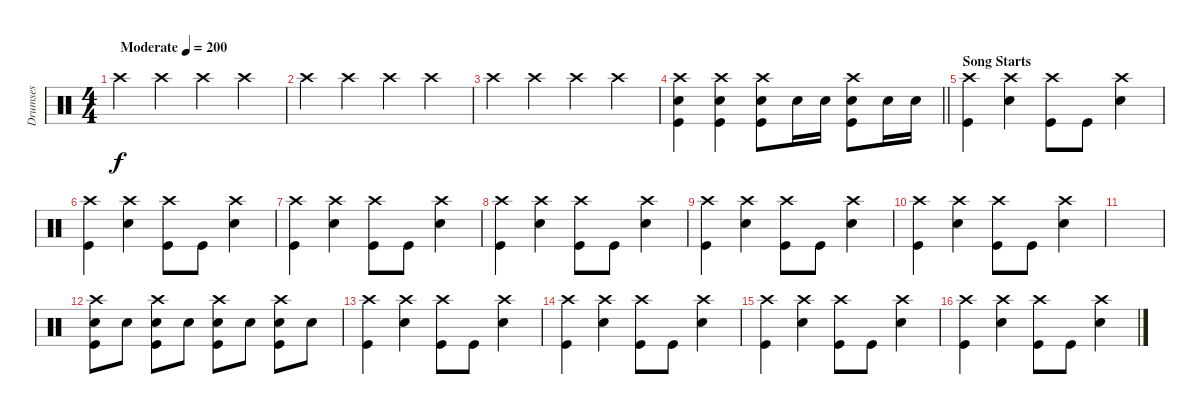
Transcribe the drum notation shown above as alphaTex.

\track ("Drumses" "Drumses") {instrument percussion}
\staff {score}
\articulation defaults
\ts (4 4)
\tempo (200 "Moderate")
\clef neutral
\ks c "Crash high (hit)".4{dy f} "Crash high (hit)".4 "Crash high (hit)".4 "Crash high (hit)".4
|
"Crash high (hit)".4 "Crash high (hit)".4 "Crash high (hit)".4 "Crash high (hit)".4 |
"Crash high (hit)".4 "Crash high (hit)".4 "Crash high (hit)".4 "Crash high (hit)".4 |
\barLineRight lightlight
("Crash high (hit)" "Snare (hit) 2" "Kick (hit)").4 ("Crash high (hit)" "Snare (hit) 2" "Kick (hit)").4 ("Crash high (hit)" "Snare (hit) 2" "Kick (hit)").8 "Snare (hit) 2".16 "Snare (hit) 2".16 ("Crash high (hit)" "Snare (hit) 2" "Kick (hit)").8 "Snare (hit) 2".16 "Snare (hit) 2".16 |
\section ("" "Song Starts")
("Crash high (hit)" "Kick (hit)").4 ("Crash high (hit)" "Snare (hit) 2").4 ("Crash high (hit)" "Kick (hit)").8 "Kick (hit)".8 ("Crash high (hit)" "Snare (hit) 2").4 |
("Crash high (hit)" "Kick (hit)").4 ("Crash high (hit)" "Snare (hit) 2").4 ("Crash high (hit)" "Kick (hit)").8 "Kick (hit)".8 ("Crash high (hit)" "Snare (hit) 2").4 |
("Crash high (hit)" "Kick (hit)").4 ("Crash high (hit)" "Snare (hit) 2").4 ("Crash high (hit)" "Kick (hit)").8 "Kick (hit)".8 ("Crash high (hit)" "Snare (hit) 2").4 |
("Crash high (hit)" "Kick (hit)").4 ("Crash high (hit)" "Snare (hit) 2").4 ("Crash high (hit)" "Kick (hit)").8 "Kick (hit)".8 ("Crash high (hit)" "Snare (hit) 2").4 |
("Crash high (hit)" "Kick (hit)").4 ("Crash high (hit)" "Snare (hit) 2").4 ("Crash high (hit)" "Kick (hit)").8 "Kick (hit)".8 ("Crash high (hit)" "Snare (hit) 2").4 |
("Crash high (hit)" "Kick (hit)").4 ("Crash high (hit)" "Snare (hit) 2").4 ("Crash high (hit)" "Kick (hit)").8 "Kick (hit)".8 ("Crash high (hit)" "Snare (hit) 2").4 |
|
("Crash high (hit)" "Snare (hit) 2" "Kick (hit)").8 "Snare (hit) 2".8 ("Crash high (hit)" "Snare (hit) 2" "Kick (hit)").8 "Snare (hit) 2".8 ("Crash high (hit)" "Snare (hit) 2" "Kick (hit)").8 "Snare (hit) 2".8 ("Crash high (hit)" "Snare (hit) 2" "Kick (hit)").8 "Snare (hit) 2".8 |
("Crash high (hit)" "Kick (hit)").4 ("Crash high (hit)" "Snare (hit) 2").4 ("Crash high (hit)" "Kick (hit)").8 "Kick (hit)".8 ("Crash high (hit)" "Snare (hit) 2").4 |
("Crash high (hit)" "Kick (hit)").4 ("Crash high (hit)" "Snare (hit) 2").4 ("Crash high (hit)" "Kick (hit)").8 "Kick (hit)".8 ("Crash high (hit)" "Snare (hit) 2").4 |
("Crash high (hit)" "Kick (hit)").4 ("Crash high (hit)" "Snare (hit) 2").4 ("Crash high (hit)" "Kick (hit)").8 "Kick (hit)".8 ("Crash high (hit)" "Snare (hit) 2").4 |
("Crash high (hit)" "Kick (hit)").4 ("Crash high (hit)" "Snare (hit) 2").4 ("Crash high (hit)" "Kick (hit)").8 "Kick (hit)".8 ("Crash high (hit)" "Snare (hit) 2").4
